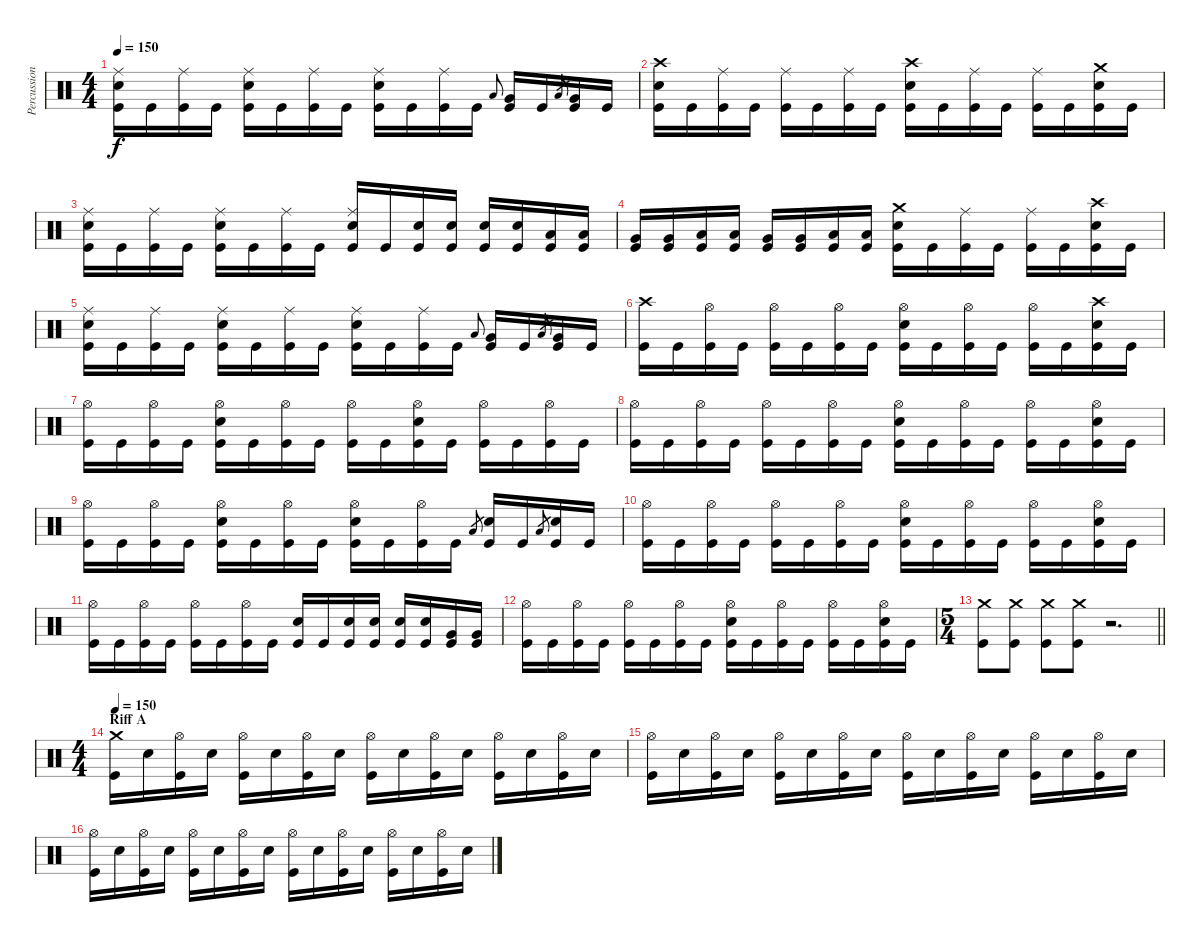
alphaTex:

\track ("Percussion" "Percussion") {instrument percussion}
\staff {score}
\articulation defaults
\ts (4 4)
\tempo 150
\clef neutral
\ks c
("Kick (hit)" "Ride (middle)" "Snare (hit) 2").16{dy f} "Kick (hit)".16 ("Kick (hit)" "Ride (middle)").16 "Kick (hit)".16 ("Kick (hit)" "Ride (middle)" "Snare (hit) 2").16 "Kick (hit)".16 ("Kick (hit)" "Ride (middle)").16 "Kick (hit)".16 ("Kick (hit)" "Ride (middle)" "Snare (hit) 2").16 "Kick (hit)".16 ("Kick (hit)" "Ride (middle)").16 "Kick (hit)".16 "Low Floor Tom (hit)".8{gr onbeat} ("Kick (hit)" "Very Low Tom (hit)").16 "Kick (hit)".16 "Low Floor Tom (hit)".8{gr} ("Kick (hit)" "Very Low Tom (hit)").16 "Kick (hit)".16 |
("Kick (hit)" "Crash high (hit)" "Snare (hit) 2").16 "Kick (hit)".16 ("Kick (hit)" "Ride (middle)").16 "Kick (hit)".16 ("Kick (hit)" "Ride (middle)").16 "Kick (hit)".16 ("Kick (hit)" "Ride (middle)").16 "Kick (hit)".16 ("Kick (hit)" "Crash high (hit)" "Snare (hit) 2").16 "Kick (hit)".16 ("Kick (hit)" "Ride (middle)").16 "Kick (hit)".16 ("Kick (hit)" "Ride (middle)").16 "Kick (hit)".16 ("Kick (hit)" "Crash medium (hit)" "Snare (hit) 2").16 "Kick (hit)".16 |
("Kick (hit)" "Ride (middle)" "Snare (hit) 2").16 "Kick (hit)".16 ("Kick (hit)" "Ride (middle)").16 "Kick (hit)".16 ("Kick (hit)" "Ride (middle)" "Snare (hit) 2").16 "Kick (hit)".16 ("Kick (hit)" "Ride (middle)").16 "Kick (hit)".16 ("Kick (hit)" "Ride (middle)" "Snare (hit) 2").16 "Kick (hit)".16 ("Kick (hit)" "Snare (hit) 2").16 ("Kick (hit)" "Snare (hit) 2").16 ("Kick (hit)" "Snare (hit) 2").16 ("Kick (hit)" "Snare (hit) 2").16 ("Kick (hit)" "Low Tom (hit)").16 ("Kick (hit)" "Low Tom (hit)").16 |
("Kick (hit)" "Very Low Tom (hit)").16 ("Kick (hit)" "Very Low Tom (hit)").16 ("Kick (hit)" "Low Floor Tom (hit)").16 ("Kick (hit)" "Low Floor Tom (hit)").16 ("Kick (hit)" "Very Low Tom (hit)").16 ("Kick (hit)" "Very Low Tom (hit)").16 ("Kick (hit)" "Low Floor Tom (hit)").16 ("Kick (hit)" "Low Floor Tom (hit)").16 ("Kick (hit)" "Crash medium (hit)" "Snare (hit) 2").16 "Kick (hit)".16 ("Kick (hit)" "Ride (middle)").16 "Kick (hit)".16 ("Kick (hit)" "Ride (middle)").16 "Kick (hit)".16 ("Kick (hit)" "Crash high (hit)" "Snare (hit) 2").16 "Kick (hit)".16 |
("Kick (hit)" "Ride (middle)" "Snare (hit) 2").16 "Kick (hit)".16 ("Kick (hit)" "Ride (middle)").16 "Kick (hit)".16 ("Kick (hit)" "Ride (middle)" "Snare (hit) 2").16 "Kick (hit)".16 ("Kick (hit)" "Ride (middle)").16 "Kick (hit)".16 ("Kick (hit)" "Ride (middle)" "Snare (hit) 2").16 "Kick (hit)".16 ("Kick (hit)" "Ride (middle)").16 "Kick (hit)".16 "Low Floor Tom (hit)".8{gr onbeat} ("Kick (hit)" "Very Low Tom (hit)").16 "Kick (hit)".16 "Low Floor Tom (hit)".8{gr} ("Kick (hit)" "Very Low Tom (hit)").16 "Kick (hit)".16 |
("Kick (hit)" "Crash high (hit)").16 "Kick (hit)".16 ("Kick (hit)" "Hi-Hat (open)").16 "Kick (hit)".16 ("Kick (hit)" "Hi-Hat (open)").16 "Kick (hit)".16 ("Kick (hit)" "Hi-Hat (open)").16 "Kick (hit)".16 ("Kick (hit)" "Hi-Hat (open)" "Snare (hit) 2").16 "Kick (hit)".16 ("Kick (hit)" "Hi-Hat (open)").16 "Kick (hit)".16 ("Kick (hit)" "Hi-Hat (open)").16 "Kick (hit)".16 ("Kick (hit)" "Crash high (hit)" "Snare (hit) 2").16 "Kick (hit)".16 |
("Kick (hit)" "Hi-Hat (open)").16 "Kick (hit)".16 ("Kick (hit)" "Hi-Hat (open)").16 "Kick (hit)".16 ("Kick (hit)" "Hi-Hat (open)" "Snare (hit) 2").16 "Kick (hit)".16 ("Kick (hit)" "Hi-Hat (open)").16 "Kick (hit)".16 ("Kick (hit)" "Hi-Hat (open)").16 "Kick (hit)".16 ("Kick (hit)" "Hi-Hat (open)" "Snare (hit) 2").16 "Kick (hit)".16 ("Kick (hit)" "Hi-Hat (open)").16 "Kick (hit)".16 ("Kick (hit)" "Hi-Hat (open)").16 "Kick (hit)".16 |
("Kick (hit)" "Hi-Hat (open)").16 "Kick (hit)".16 ("Kick (hit)" "Hi-Hat (open)").16 "Kick (hit)".16 ("Kick (hit)" "Hi-Hat (open)").16 "Kick (hit)".16 ("Kick (hit)" "Hi-Hat (open)").16 "Kick (hit)".16 ("Kick (hit)" "Hi-Hat (open)" "Snare (hit) 2").16 "Kick (hit)".16 ("Kick (hit)" "Hi-Hat (open)").16 "Kick (hit)".16 ("Kick (hit)" "Hi-Hat (open)").16 "Kick (hit)".16 ("Kick (hit)" "Hi-Hat (open)" "Snare (hit) 2").16 "Kick (hit)".16 |
("Kick (hit)" "Hi-Hat (open)").16 "Kick (hit)".16 ("Kick (hit)" "Hi-Hat (open)").16 "Kick (hit)".16 ("Kick (hit)" "Hi-Hat (open)" "Snare (hit) 2").16 "Kick (hit)".16 ("Kick (hit)" "Hi-Hat (open)").16 "Kick (hit)".16 ("Kick (hit)" "Hi-Hat (open)" "Snare (hit) 2").16 "Kick (hit)".16 ("Kick (hit)" "Hi-Hat (open)").16 "Kick (hit)".16 "Low Floor Tom (hit)".8{gr} ("Kick (hit)" "Snare (hit) 2").16 "Kick (hit)".16 "Low Floor Tom (hit)".8{gr} ("Kick (hit)" "Snare (hit) 2").16 "Kick (hit)".16 |
("Kick (hit)" "Hi-Hat (open)").16 "Kick (hit)".16 ("Kick (hit)" "Hi-Hat (open)").16 "Kick (hit)".16 ("Kick (hit)" "Hi-Hat (open)").16 "Kick (hit)".16 ("Kick (hit)" "Hi-Hat (open)").16 "Kick (hit)".16 ("Kick (hit)" "Hi-Hat (open)" "Snare (hit) 2").16 "Kick (hit)".16 ("Kick (hit)" "Hi-Hat (open)").16 "Kick (hit)".16 ("Kick (hit)" "Hi-Hat (open)").16 "Kick (hit)".16 ("Kick (hit)" "Hi-Hat (open)" "Snare (hit) 2").16 "Kick (hit)".16 |
("Kick (hit)" "Hi-Hat (open)").16 "Kick (hit)".16 ("Kick (hit)" "Hi-Hat (open)").16 "Kick (hit)".16 ("Kick (hit)" "Hi-Hat (open)").16 "Kick (hit)".16 ("Kick (hit)" "Hi-Hat (open)").16 "Kick (hit)".16 ("Kick (hit)" "Snare (hit) 2").16 "Kick (hit)".16 ("Kick (hit)" "Snare (hit) 2").16 ("Kick (hit)" "Snare (hit) 2").16 ("Kick (hit)" "Snare (hit) 2").16 ("Kick (hit)" "Snare (hit) 2").16 ("Kick (hit)" "Very Low Tom (hit)").16 ("Kick (hit)" "Very Low Tom (hit)").16 |
("Kick (hit)" "Hi-Hat (open)").16 "Kick (hit)".16 ("Kick (hit)" "Hi-Hat (open)").16 "Kick (hit)".16 ("Kick (hit)" "Hi-Hat (open)").16 "Kick (hit)".16 ("Kick (hit)" "Hi-Hat (open)").16 "Kick (hit)".16 ("Kick (hit)" "Hi-Hat (open)" "Snare (hit) 2").16 "Kick (hit)".16 ("Kick (hit)" "Hi-Hat (open)").16 "Kick (hit)".16 ("Kick (hit)" "Hi-Hat (open)").16 "Kick (hit)".16 ("Kick (hit)" "Hi-Hat (open)" "Snare (hit) 2").16 "Kick (hit)".16 |
\ts (5 4)
\barLineRight lightlight
("Kick (hit)" "Crash medium (hit)").8 ("Kick (hit)" "Crash medium (hit)").8 ("Kick (hit)" "Crash medium (hit)").8 ("Kick (hit)" "Crash medium (hit)").8 r.2{d} |
\ts (4 4)
\section ("" "Riff A")
\tempo 150
("Kick (hit)" "Crash medium (hit)").16 "Snare (hit) 2".16 ("Kick (hit)" "Hi-Hat (open)").16 "Snare (hit) 2".16 ("Kick (hit)" "Hi-Hat (open)").16 "Snare (hit) 2".16 ("Kick (hit)" "Hi-Hat (open)").16 "Snare (hit) 2".16 ("Kick (hit)" "Hi-Hat (open)").16 "Snare (hit) 2".16 ("Kick (hit)" "Hi-Hat (open)").16 "Snare (hit) 2".16 ("Kick (hit)" "Hi-Hat (open)").16 "Snare (hit) 2".16 ("Kick (hit)" "Hi-Hat (open)").16 "Snare (hit) 2".16 |
("Kick (hit)" "Hi-Hat (open)").16 "Snare (hit) 2".16 ("Kick (hit)" "Hi-Hat (open)").16 "Snare (hit) 2".16 ("Kick (hit)" "Hi-Hat (open)").16 "Snare (hit) 2".16 ("Kick (hit)" "Hi-Hat (open)").16 "Snare (hit) 2".16 ("Kick (hit)" "Hi-Hat (open)").16 "Snare (hit) 2".16 ("Kick (hit)" "Hi-Hat (open)").16 "Snare (hit) 2".16 ("Kick (hit)" "Hi-Hat (open)").16 "Snare (hit) 2".16 ("Kick (hit)" "Hi-Hat (open)").16 "Snare (hit) 2".16 |
("Kick (hit)" "Hi-Hat (open)").16 "Snare (hit) 2".16 ("Kick (hit)" "Hi-Hat (open)").16 "Snare (hit) 2".16 ("Kick (hit)" "Hi-Hat (open)").16 "Snare (hit) 2".16 ("Kick (hit)" "Hi-Hat (open)").16 "Snare (hit) 2".16 ("Kick (hit)" "Hi-Hat (open)").16 "Snare (hit) 2".16 ("Kick (hit)" "Hi-Hat (open)").16 "Snare (hit) 2".16 ("Kick (hit)" "Hi-Hat (open)").16 "Snare (hit) 2".16 ("Kick (hit)" "Hi-Hat (open)").16 "Snare (hit) 2".16
